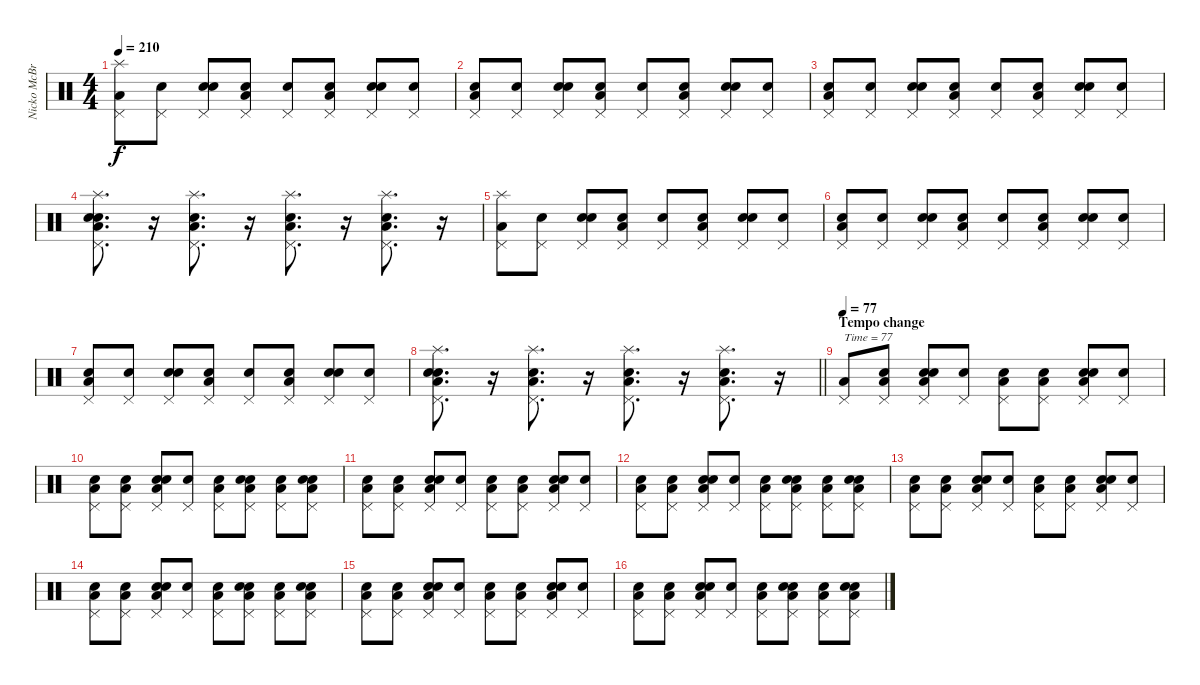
\track ("Nicko McBrain" "Nicko McBr") {instrument percussion}
\staff {score}
\articulation defaults
\ts (4 4)
\tempo 210
\clef neutral
\ks c
("Low Floor Tom (hit)" "Pedal Hi-Hat (hit)" "Splash (hit)").8{dy f} ("Snare (hit)" "Pedal Hi-Hat (hit)").8 ("Snare (hit)" "Electric Snare (hit)" "Pedal Hi-Hat (hit)").8 ("Snare (hit)" "Low Floor Tom (hit)" "Pedal Hi-Hat (hit)").8 ("Snare (hit)" "Pedal Hi-Hat (hit)").8 ("Snare (hit)" "Low Floor Tom (hit)" "Pedal Hi-Hat (hit)").8 ("Snare (hit)" "Electric Snare (hit)" "Pedal Hi-Hat (hit)").8 ("Snare (hit)" "Pedal Hi-Hat (hit)").8 |
("Snare (hit)" "Low Floor Tom (hit)" "Pedal Hi-Hat (hit)").8 ("Snare (hit)" "Pedal Hi-Hat (hit)").8 ("Snare (hit)" "Electric Snare (hit)" "Pedal Hi-Hat (hit)").8 ("Snare (hit)" "Low Floor Tom (hit)" "Pedal Hi-Hat (hit)").8 ("Snare (hit)" "Pedal Hi-Hat (hit)").8 ("Snare (hit)" "Low Floor Tom (hit)" "Pedal Hi-Hat (hit)").8 ("Snare (hit)" "Electric Snare (hit)" "Pedal Hi-Hat (hit)").8 ("Snare (hit)" "Pedal Hi-Hat (hit)").8 |
("Snare (hit)" "Low Floor Tom (hit)" "Pedal Hi-Hat (hit)").8 ("Snare (hit)" "Pedal Hi-Hat (hit)").8 ("Snare (hit)" "Electric Snare (hit)" "Pedal Hi-Hat (hit)").8 ("Snare (hit)" "Low Floor Tom (hit)" "Pedal Hi-Hat (hit)").8 ("Snare (hit)" "Pedal Hi-Hat (hit)").8 ("Snare (hit)" "Low Floor Tom (hit)" "Pedal Hi-Hat (hit)").8 ("Snare (hit)" "Electric Snare (hit)" "Pedal Hi-Hat (hit)").8 ("Snare (hit)" "Pedal Hi-Hat (hit)").8 |
("Snare (hit)" "Electric Snare (hit)" "Low Floor Tom (hit)" "Pedal Hi-Hat (hit)" "Splash (hit)").8{d} r.16 ("Electric Snare (hit)" "Low Floor Tom (hit)" "Pedal Hi-Hat (hit)" "Splash (hit)").8{d} r.16 ("Electric Snare (hit)" "Low Floor Tom (hit)" "Pedal Hi-Hat (hit)" "Splash (hit)").8{d} r.16 ("Electric Snare (hit)" "Low Floor Tom (hit)" "Pedal Hi-Hat (hit)" "Splash (hit)").8{d} r.16 |
("Low Floor Tom (hit)" "Pedal Hi-Hat (hit)" "Splash (hit)").8 ("Snare (hit)" "Pedal Hi-Hat (hit)").8 ("Snare (hit)" "Electric Snare (hit)" "Pedal Hi-Hat (hit)").8 ("Snare (hit)" "Low Floor Tom (hit)" "Pedal Hi-Hat (hit)").8 ("Snare (hit)" "Pedal Hi-Hat (hit)").8 ("Snare (hit)" "Low Floor Tom (hit)" "Pedal Hi-Hat (hit)").8 ("Snare (hit)" "Electric Snare (hit)" "Pedal Hi-Hat (hit)").8 ("Snare (hit)" "Pedal Hi-Hat (hit)").8 |
("Snare (hit)" "Low Floor Tom (hit)" "Pedal Hi-Hat (hit)").8 ("Snare (hit)" "Pedal Hi-Hat (hit)").8 ("Snare (hit)" "Electric Snare (hit)" "Pedal Hi-Hat (hit)").8 ("Snare (hit)" "Low Floor Tom (hit)" "Pedal Hi-Hat (hit)").8 ("Snare (hit)" "Pedal Hi-Hat (hit)").8 ("Snare (hit)" "Low Floor Tom (hit)" "Pedal Hi-Hat (hit)").8 ("Snare (hit)" "Electric Snare (hit)" "Pedal Hi-Hat (hit)").8 ("Snare (hit)" "Pedal Hi-Hat (hit)").8 |
("Snare (hit)" "Low Floor Tom (hit)" "Pedal Hi-Hat (hit)").8 ("Snare (hit)" "Pedal Hi-Hat (hit)").8 ("Snare (hit)" "Electric Snare (hit)" "Pedal Hi-Hat (hit)").8 ("Snare (hit)" "Low Floor Tom (hit)" "Pedal Hi-Hat (hit)").8 ("Snare (hit)" "Pedal Hi-Hat (hit)").8 ("Snare (hit)" "Low Floor Tom (hit)" "Pedal Hi-Hat (hit)").8 ("Snare (hit)" "Electric Snare (hit)" "Pedal Hi-Hat (hit)").8 ("Snare (hit)" "Pedal Hi-Hat (hit)").8 |
\barLineRight lightlight
("Snare (hit)" "Electric Snare (hit)" "Low Floor Tom (hit)" "Pedal Hi-Hat (hit)" "Splash (hit)").8{d} r.16 ("Electric Snare (hit)" "Low Floor Tom (hit)" "Pedal Hi-Hat (hit)" "Splash (hit)").8{d} r.16 ("Electric Snare (hit)" "Low Floor Tom (hit)" "Pedal Hi-Hat (hit)" "Splash (hit)").8{d} r.16 ("Electric Snare (hit)" "Low Floor Tom (hit)" "Pedal Hi-Hat (hit)" "Splash (hit)").8{d} r.16 |
\section ("" "Tempo change")
\tempo 77
("Low Floor Tom (hit)" "Pedal Hi-Hat (hit)").8{txt "Time = 77"} ("Snare (hit)" "Low Floor Tom (hit)" "Pedal Hi-Hat (hit)").8 ("Snare (hit)" "Electric Snare (hit)" "Low Floor Tom (hit)" "Pedal Hi-Hat (hit)").8 ("Snare (hit)" "Pedal Hi-Hat (hit)").8 ("Snare (hit)" "Low Floor Tom (hit)" "Pedal Hi-Hat (hit)").8 ("Snare (hit)" "Low Floor Tom (hit)" "Pedal Hi-Hat (hit)").8 ("Snare (hit)" "Electric Snare (hit)" "Low Floor Tom (hit)" "Pedal Hi-Hat (hit)").8 ("Snare (hit)" "Pedal Hi-Hat (hit)").8 |
("Snare (hit)" "Low Floor Tom (hit)" "Pedal Hi-Hat (hit)").8 ("Snare (hit)" "Low Floor Tom (hit)" "Pedal Hi-Hat (hit)").8 ("Snare (hit)" "Electric Snare (hit)" "Low Floor Tom (hit)" "Pedal Hi-Hat (hit)").8 ("Snare (hit)" "Pedal Hi-Hat (hit)").8 ("Snare (hit)" "Low Floor Tom (hit)" "Pedal Hi-Hat (hit)").8 ("Snare (hit)" "Electric Snare (hit)" "Low Floor Tom (hit)" "Pedal Hi-Hat (hit)").8 ("Snare (hit)" "Low Floor Tom (hit)" "Pedal Hi-Hat (hit)").8 ("Snare (hit)" "Electric Snare (hit)" "Low Floor Tom (hit)" "Pedal Hi-Hat (hit)").8 |
("Snare (hit)" "Low Floor Tom (hit)" "Pedal Hi-Hat (hit)").8 ("Snare (hit)" "Low Floor Tom (hit)" "Pedal Hi-Hat (hit)").8 ("Snare (hit)" "Electric Snare (hit)" "Low Floor Tom (hit)" "Pedal Hi-Hat (hit)").8 ("Snare (hit)" "Pedal Hi-Hat (hit)").8 ("Snare (hit)" "Low Floor Tom (hit)" "Pedal Hi-Hat (hit)").8 ("Snare (hit)" "Low Floor Tom (hit)" "Pedal Hi-Hat (hit)").8 ("Snare (hit)" "Electric Snare (hit)" "Low Floor Tom (hit)" "Pedal Hi-Hat (hit)").8 ("Snare (hit)" "Pedal Hi-Hat (hit)").8 |
("Snare (hit)" "Low Floor Tom (hit)" "Pedal Hi-Hat (hit)").8 ("Snare (hit)" "Low Floor Tom (hit)" "Pedal Hi-Hat (hit)").8 ("Snare (hit)" "Electric Snare (hit)" "Low Floor Tom (hit)" "Pedal Hi-Hat (hit)").8 ("Snare (hit)" "Pedal Hi-Hat (hit)").8 ("Snare (hit)" "Low Floor Tom (hit)" "Pedal Hi-Hat (hit)").8 ("Snare (hit)" "Electric Snare (hit)" "Low Floor Tom (hit)" "Pedal Hi-Hat (hit)").8 ("Snare (hit)" "Low Floor Tom (hit)" "Pedal Hi-Hat (hit)").8 ("Snare (hit)" "Electric Snare (hit)" "Low Floor Tom (hit)" "Pedal Hi-Hat (hit)").8 |
("Snare (hit)" "Low Floor Tom (hit)" "Pedal Hi-Hat (hit)").8 ("Snare (hit)" "Low Floor Tom (hit)" "Pedal Hi-Hat (hit)").8 ("Snare (hit)" "Electric Snare (hit)" "Low Floor Tom (hit)" "Pedal Hi-Hat (hit)").8 ("Snare (hit)" "Pedal Hi-Hat (hit)").8 ("Snare (hit)" "Low Floor Tom (hit)" "Pedal Hi-Hat (hit)").8 ("Snare (hit)" "Low Floor Tom (hit)" "Pedal Hi-Hat (hit)").8 ("Snare (hit)" "Electric Snare (hit)" "Low Floor Tom (hit)" "Pedal Hi-Hat (hit)").8 ("Snare (hit)" "Pedal Hi-Hat (hit)").8 |
("Snare (hit)" "Low Floor Tom (hit)" "Pedal Hi-Hat (hit)").8 ("Snare (hit)" "Low Floor Tom (hit)" "Pedal Hi-Hat (hit)").8 ("Snare (hit)" "Electric Snare (hit)" "Low Floor Tom (hit)" "Pedal Hi-Hat (hit)").8 ("Snare (hit)" "Pedal Hi-Hat (hit)").8 ("Snare (hit)" "Low Floor Tom (hit)" "Pedal Hi-Hat (hit)").8 ("Snare (hit)" "Electric Snare (hit)" "Low Floor Tom (hit)" "Pedal Hi-Hat (hit)").8 ("Snare (hit)" "Low Floor Tom (hit)" "Pedal Hi-Hat (hit)").8 ("Snare (hit)" "Electric Snare (hit)" "Low Floor Tom (hit)" "Pedal Hi-Hat (hit)").8 |
("Snare (hit)" "Low Floor Tom (hit)" "Pedal Hi-Hat (hit)").8 ("Snare (hit)" "Low Floor Tom (hit)" "Pedal Hi-Hat (hit)").8 ("Snare (hit)" "Electric Snare (hit)" "Low Floor Tom (hit)" "Pedal Hi-Hat (hit)").8 ("Snare (hit)" "Pedal Hi-Hat (hit)").8 ("Snare (hit)" "Low Floor Tom (hit)" "Pedal Hi-Hat (hit)").8 ("Snare (hit)" "Low Floor Tom (hit)" "Pedal Hi-Hat (hit)").8 ("Snare (hit)" "Electric Snare (hit)" "Low Floor Tom (hit)" "Pedal Hi-Hat (hit)").8 ("Snare (hit)" "Pedal Hi-Hat (hit)").8 |
("Snare (hit)" "Low Floor Tom (hit)" "Pedal Hi-Hat (hit)").8 ("Snare (hit)" "Low Floor Tom (hit)" "Pedal Hi-Hat (hit)").8 ("Snare (hit)" "Electric Snare (hit)" "Low Floor Tom (hit)" "Pedal Hi-Hat (hit)").8 ("Snare (hit)" "Pedal Hi-Hat (hit)").8 ("Snare (hit)" "Low Floor Tom (hit)" "Pedal Hi-Hat (hit)").8 ("Snare (hit)" "Electric Snare (hit)" "Low Floor Tom (hit)" "Pedal Hi-Hat (hit)").8 ("Snare (hit)" "Low Floor Tom (hit)" "Pedal Hi-Hat (hit)").8 ("Snare (hit)" "Electric Snare (hit)" "Low Floor Tom (hit)" "Pedal Hi-Hat (hit)").8
